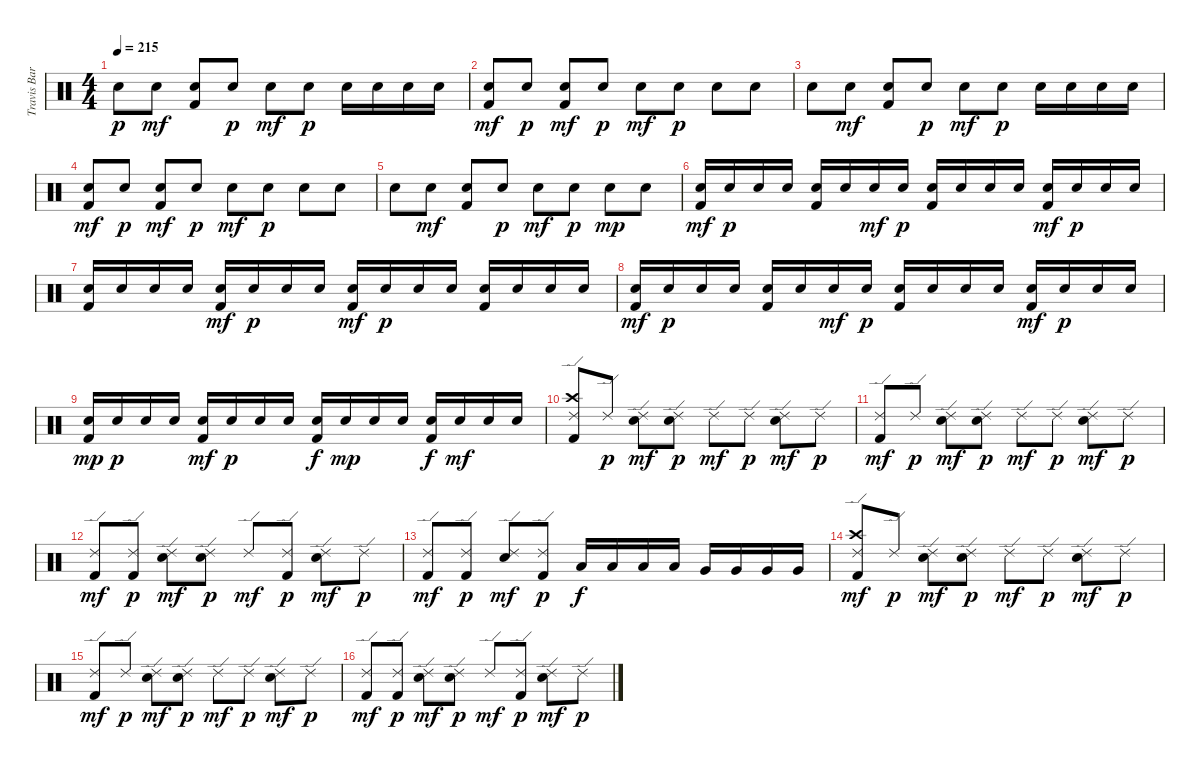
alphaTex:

\track ("Travis Barker" "Travis Bar") {instrument percussion}
\staff {score}
\articulation defaults
\ts (4 4)
\tempo 215
\clef neutral
\ks c "Snare (hit) 2".8{dy p} "Snare (hit) 2".8{dy mf}
("Snare (hit) 2" "Kick (hit) 2").8 "Snare (hit) 2".8{dy p} "Snare (hit) 2".8{dy mf} "Snare (hit) 2".8{dy p} "Snare (hit) 2".16 "Snare (hit) 2".16 "Snare (hit) 2".16 "Snare (hit) 2".16 |
("Snare (hit) 2" "Kick (hit) 2").8{dy mf} "Snare (hit) 2".8{dy p} ("Snare (hit) 2" "Kick (hit) 2").8{dy mf} "Snare (hit) 2".8{dy p} "Snare (hit) 2".8{dy mf} "Snare (hit) 2".8{dy p} "Snare (hit) 2".8 "Snare (hit) 2".8 |
"Snare (hit) 2".8 "Snare (hit) 2".8{dy mf} ("Snare (hit) 2" "Kick (hit) 2").8 "Snare (hit) 2".8{dy p} "Snare (hit) 2".8{dy mf} "Snare (hit) 2".8{dy p} "Snare (hit) 2".16 "Snare (hit) 2".16 "Snare (hit) 2".16 "Snare (hit) 2".16 |
("Snare (hit) 2" "Kick (hit) 2").8{dy mf} "Snare (hit) 2".8{dy p} ("Snare (hit) 2" "Kick (hit) 2").8{dy mf} "Snare (hit) 2".8{dy p} "Snare (hit) 2".8{dy mf} "Snare (hit) 2".8{dy p} "Snare (hit) 2".8 "Snare (hit) 2".8 |
"Snare (hit) 2".8 "Snare (hit) 2".8{dy mf} ("Snare (hit) 2" "Kick (hit) 2").8 "Snare (hit) 2".8{dy p} "Snare (hit) 2".8{dy mf} "Snare (hit) 2".8{dy p} "Snare (hit) 2".8{dy mp} "Snare (hit) 2".8 |
("Snare (hit) 2" "Kick (hit) 2").16{dy mf} "Snare (hit) 2".16{dy p} "Snare (hit) 2".16 "Snare (hit) 2".16 ("Snare (hit) 2" "Kick (hit) 2").16 "Snare (hit) 2".16 "Snare (hit) 2".16{dy mf} "Snare (hit) 2".16{dy p} ("Snare (hit) 2" "Kick (hit) 2").16 "Snare (hit) 2".16 "Snare (hit) 2".16 "Snare (hit) 2".16 ("Snare (hit) 2" "Kick (hit) 2").16{dy mf} "Snare (hit) 2".16{dy p} "Snare (hit) 2".16 "Snare (hit) 2".16 |
("Snare (hit) 2" "Kick (hit) 2").16 "Snare (hit) 2".16 "Snare (hit) 2".16 "Snare (hit) 2".16 ("Snare (hit) 2" "Kick (hit) 2").16{dy mf} "Snare (hit) 2".16{dy p} "Snare (hit) 2".16 "Snare (hit) 2".16 ("Snare (hit) 2" "Kick (hit) 2").16{dy mf} "Snare (hit) 2".16{dy p} "Snare (hit) 2".16 "Snare (hit) 2".16 ("Snare (hit) 2" "Kick (hit) 2").16 "Snare (hit) 2".16 "Snare (hit) 2".16 "Snare (hit) 2".16 |
("Snare (hit) 2" "Kick (hit) 2").16{dy mf} "Snare (hit) 2".16{dy p} "Snare (hit) 2".16 "Snare (hit) 2".16 ("Snare (hit) 2" "Kick (hit) 2").16 "Snare (hit) 2".16 "Snare (hit) 2".16{dy mf} "Snare (hit) 2".16{dy p} ("Snare (hit) 2" "Kick (hit) 2").16 "Snare (hit) 2".16 "Snare (hit) 2".16 "Snare (hit) 2".16 ("Snare (hit) 2" "Kick (hit) 2").16{dy mf} "Snare (hit) 2".16{dy p} "Snare (hit) 2".16 "Snare (hit) 2".16 |
("Snare (hit) 2" "Kick (hit) 2").16{dy mp} "Snare (hit) 2".16{dy p} "Snare (hit) 2".16 "Snare (hit) 2".16 ("Snare (hit) 2" "Kick (hit) 2").16{dy mf} "Snare (hit) 2".16{dy p} "Snare (hit) 2".16 "Snare (hit) 2".16 ("Snare (hit) 2" "Kick (hit) 2").16{dy f} "Snare (hit) 2".16{dy mp} "Snare (hit) 2".16 "Snare (hit) 2".16 ("Snare (hit) 2" "Kick (hit) 2").16{dy f} "Snare (hit) 2".16{dy mf} "Snare (hit) 2".16 "Snare (hit) 2".16 |
("Crash high (hit)" "Ride (edge) 2" "Kick (hit) 2").8 "Ride (edge) 2".8{dy p} ("Ride (edge) 2" "Snare (hit) 2").8{dy mf} ("Ride (edge) 2" "Snare (hit) 2").8{dy p} "Ride (edge) 2".8{dy mf} "Ride (edge) 2".8{dy p} ("Ride (edge) 2" "Snare (hit) 2").8{dy mf} "Ride (edge) 2".8{dy p} |
("Ride (edge) 2" "Kick (hit) 2").8{dy mf} "Ride (edge) 2".8{dy p} ("Ride (edge) 2" "Snare (hit) 2").8{dy mf} ("Ride (edge) 2" "Snare (hit) 2").8{dy p} "Ride (edge) 2".8{dy mf} "Ride (edge) 2".8{dy p} ("Ride (edge) 2" "Snare (hit) 2").8{dy mf} "Ride (edge) 2".8{dy p} |
("Ride (edge) 2" "Kick (hit) 2").8{dy mf} ("Ride (edge) 2" "Kick (hit) 2").8{dy p} ("Ride (edge) 2" "Snare (hit) 2").8{dy mf} ("Ride (edge) 2" "Snare (hit) 2").8{dy p} "Ride (edge) 2".8{dy mf} ("Ride (edge) 2" "Kick (hit) 2").8{dy p} ("Ride (edge) 2" "Snare (hit) 2").8{dy mf} "Ride (edge) 2".8{dy p} |
("Ride (edge) 2" "Kick (hit) 2").8{dy mf} ("Ride (edge) 2" "Kick (hit) 2").8{dy p} ("Ride (edge) 2" "Snare (hit) 2").8{dy mf} ("Ride (edge) 2" "Kick (hit) 2").8{dy p} "Low Tom (hit)".16{dy f} "Low Tom (hit)".16 "Low Tom (hit)".16 "Low Tom (hit)".16 "Very Low Tom (hit)".16 "Very Low Tom (hit)".16 "Very Low Tom (hit)".16 "Very Low Tom (hit)".16 |
("Crash high (hit)" "Ride (edge) 2" "Kick (hit) 2").8{dy mf} "Ride (edge) 2".8{dy p} ("Ride (edge) 2" "Snare (hit) 2").8{dy mf} ("Ride (edge) 2" "Snare (hit) 2").8{dy p} "Ride (edge) 2".8{dy mf} "Ride (edge) 2".8{dy p} ("Ride (edge) 2" "Snare (hit) 2").8{dy mf} "Ride (edge) 2".8{dy p} |
("Ride (edge) 2" "Kick (hit) 2").8{dy mf} "Ride (edge) 2".8{dy p} ("Ride (edge) 2" "Snare (hit) 2").8{dy mf} ("Ride (edge) 2" "Snare (hit) 2").8{dy p} "Ride (edge) 2".8{dy mf} "Ride (edge) 2".8{dy p} ("Ride (edge) 2" "Snare (hit) 2").8{dy mf} "Ride (edge) 2".8{dy p} |
("Ride (edge) 2" "Kick (hit) 2").8{dy mf} ("Ride (edge) 2" "Kick (hit) 2").8{dy p} ("Ride (edge) 2" "Snare (hit) 2").8{dy mf} ("Ride (edge) 2" "Snare (hit) 2").8{dy p} "Ride (edge) 2".8{dy mf} ("Ride (edge) 2" "Kick (hit) 2").8{dy p} ("Ride (edge) 2" "Snare (hit) 2").8{dy mf} "Ride (edge) 2".8{dy p}
